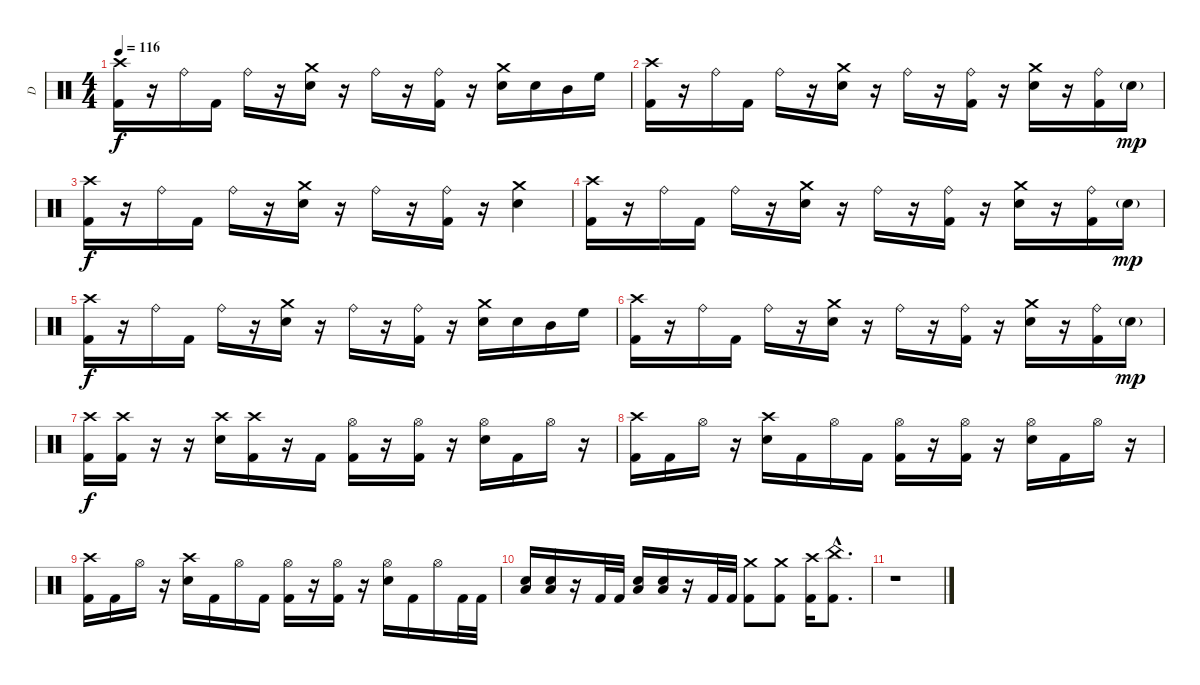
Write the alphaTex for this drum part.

\track ("D" "D") {instrument percussion}
\staff {score}
\articulation defaults
\ts (4 4)
\tempo 116
\clef neutral
\ks c
("Crash high (hit)" "Kick (hit) 2").16{dy f} r.16 "Ride (bell)".16 "Kick (hit) 2".16 "Ride (bell)".16 r.16 ("Crash medium (hit)" "Electric Snare (hit)").16 r.16 "Ride (bell)".16 r.16 ("Ride (bell)" "Kick (hit) 2").16 r.16 ("Crash medium (hit)" "Electric Snare (hit)").16 "Electric Snare (hit)".16 "Mid Tom (hit)".16 "High Floor Tom (hit)".16 |
("Crash high (hit)" "Kick (hit) 2").16 r.16 "Ride (bell)".16 "Kick (hit) 2".16 "Ride (bell)".16 r.16 ("Crash medium (hit)" "Electric Snare (hit)").16 r.16 "Ride (bell)".16 r.16 ("Ride (bell)" "Kick (hit) 2").16 r.16 ("Crash medium (hit)" "Electric Snare (hit)").16 r.16 ("Ride (bell)" "Kick (hit) 2").16 "Electric Snare (hit)"{g}.16{dy mp} |
("Crash high (hit)" "Kick (hit) 2").16{dy f} r.16 "Ride (bell)".16 "Kick (hit) 2".16 "Ride (bell)".16 r.16 ("Crash medium (hit)" "Electric Snare (hit)").16 r.16 "Ride (bell)".16 r.16 ("Ride (bell)" "Kick (hit) 2").16 r.16 ("Crash medium (hit)" "Electric Snare (hit)").4 |
("Crash high (hit)" "Kick (hit) 2").16 r.16 "Ride (bell)".16 "Kick (hit) 2".16 "Ride (bell)".16 r.16 ("Crash medium (hit)" "Electric Snare (hit)").16 r.16 "Ride (bell)".16 r.16 ("Ride (bell)" "Kick (hit) 2").16 r.16 ("Crash medium (hit)" "Electric Snare (hit)").16 r.16 ("Ride (bell)" "Kick (hit) 2").16 "Electric Snare (hit)"{g}.16{dy mp} |
("Crash high (hit)" "Kick (hit) 2").16{dy f} r.16 "Ride (bell)".16 "Kick (hit) 2".16 "Ride (bell)".16 r.16 ("Crash medium (hit)" "Electric Snare (hit)").16 r.16 "Ride (bell)".16 r.16 ("Ride (bell)" "Kick (hit) 2").16 r.16 ("Crash medium (hit)" "Electric Snare (hit)").16 "Electric Snare (hit)".16 "Mid Tom (hit)".16 "High Floor Tom (hit)".16 |
("Crash high (hit)" "Kick (hit) 2").16 r.16 "Ride (bell)".16 "Kick (hit) 2".16 "Ride (bell)".16 r.16 ("Crash medium (hit)" "Electric Snare (hit)").16 r.16 "Ride (bell)".16 r.16 ("Ride (bell)" "Kick (hit) 2").16 r.16 ("Crash medium (hit)" "Electric Snare (hit)").16 r.16 ("Ride (bell)" "Kick (hit) 2").16 "Electric Snare (hit)"{g}.16{dy mp} |
("Crash high (hit)" "Kick (hit) 2").16{dy f} ("Crash high (hit)" "Kick (hit) 2").16 r.16 r.16 ("Crash high (hit)" "Electric Snare (hit)").16 ("Crash high (hit)" "Kick (hit) 2").16 r.16 "Kick (hit) 2".16 ("Hi-Hat (open)" "Kick (hit) 2").16 r.16 ("Hi-Hat (open)" "Kick (hit) 2").16 r.16 ("Hi-Hat (open)" "Electric Snare (hit)").16 "Kick (hit) 2".16 "Hi-Hat (open)".16 r.16 |
("Crash high (hit)" "Kick (hit) 2").16 "Kick (hit) 2".16 "Hi-Hat (open)".16 r.16 ("Crash high (hit)" "Electric Snare (hit)").16 "Kick (hit) 2".16 "Hi-Hat (open)".16 "Kick (hit) 2".16 ("Hi-Hat (open)" "Kick (hit) 2").16 r.16 ("Hi-Hat (open)" "Kick (hit) 2").16 r.16 ("Hi-Hat (open)" "Electric Snare (hit)").16 "Kick (hit) 2".16 "Hi-Hat (open)".16 r.16 |
("Crash high (hit)" "Kick (hit) 2").16 "Kick (hit) 2".16 "Hi-Hat (open)".16 r.16 ("Crash high (hit)" "Electric Snare (hit)").16 "Kick (hit) 2".16 "Hi-Hat (open)".16 "Kick (hit) 2".16 ("Hi-Hat (open)" "Kick (hit) 2").16 r.16 ("Hi-Hat (open)" "Kick (hit) 2").16 r.16 ("Hi-Hat (open)" "Electric Snare (hit)").16 "Kick (hit) 2".16 "Hi-Hat (open)".16 "Kick (hit) 2".32 "Kick (hit) 2".32 |
("Electric Snare (hit)" "Low Floor Tom (hit)").16 ("Electric Snare (hit)" "Low Floor Tom (hit)").16 r.16 "Kick (hit) 2".32 "Kick (hit) 2".32 ("Electric Snare (hit)" "Low Floor Tom (hit)").16 ("Electric Snare (hit)" "Low Floor Tom (hit)").16 r.16 "Kick (hit) 2".32 "Kick (hit) 2".32 ("Crash medium (hit)" "Kick (hit) 2").8 ("Crash medium (hit)" "Kick (hit) 2").8 ("Crash high (hit)" "Kick (hit) 2").16 ("China (hit)"{hac} "Kick (hit) 2"{hac}).8{d} |
r.1
